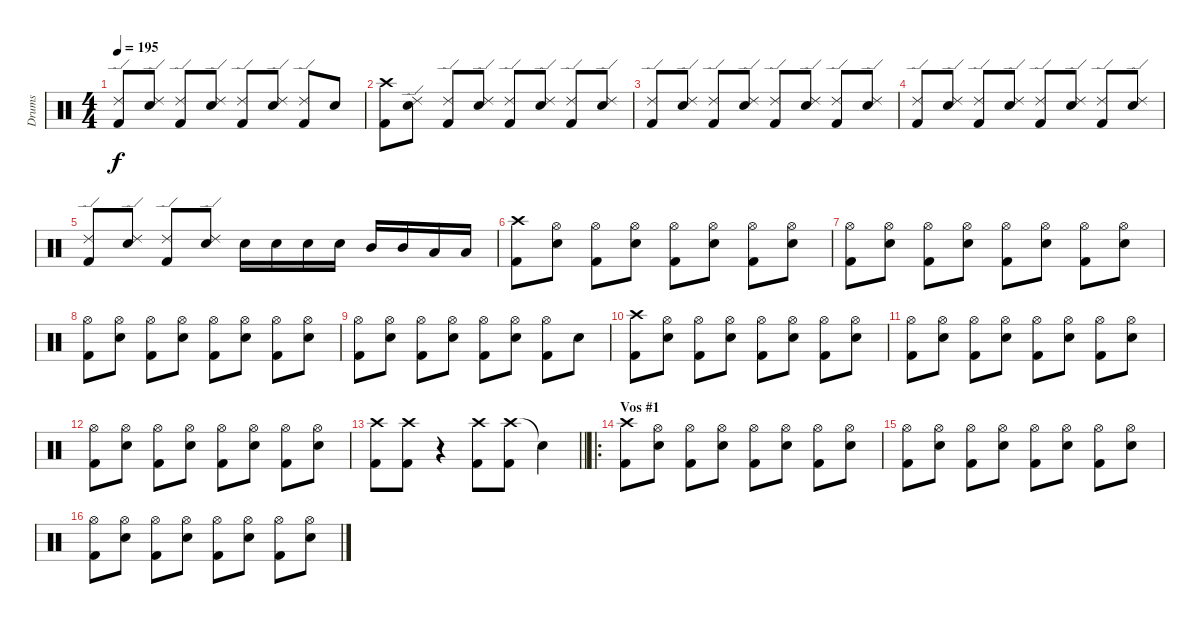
\track ("Drums" "Drums") {instrument percussion}
\staff {score}
\articulation defaults
\ts (4 4)
\tempo 195
\clef neutral
\ks c
("Ride (edge) 2" "Kick (hit) 2").8{dy f} ("Ride (edge) 2" "Snare (hit) 2").8 ("Ride (edge) 2" "Kick (hit) 2").8 ("Ride (edge) 2" "Snare (hit) 2").8 ("Ride (edge) 2" "Kick (hit) 2").8 ("Ride (edge) 2" "Snare (hit) 2").8 ("Ride (edge) 2" "Kick (hit) 2").8 "Snare (hit) 2".8 |
("Crash high (hit)" "Kick (hit) 2").8 ("Ride (edge) 2" "Snare (hit) 2").8 ("Ride (edge) 2" "Kick (hit) 2").8 ("Ride (edge) 2" "Snare (hit) 2").8 ("Ride (edge) 2" "Kick (hit) 2").8 ("Ride (edge) 2" "Snare (hit) 2").8 ("Ride (edge) 2" "Kick (hit) 2").8 ("Ride (edge) 2" "Snare (hit) 2").8 |
("Ride (edge) 2" "Kick (hit) 2").8 ("Ride (edge) 2" "Snare (hit) 2").8 ("Ride (edge) 2" "Kick (hit) 2").8 ("Ride (edge) 2" "Snare (hit) 2").8 ("Ride (edge) 2" "Kick (hit) 2").8 ("Ride (edge) 2" "Snare (hit) 2").8 ("Ride (edge) 2" "Kick (hit) 2").8 ("Ride (edge) 2" "Snare (hit) 2").8 |
("Ride (edge) 2" "Kick (hit) 2").8 ("Ride (edge) 2" "Snare (hit) 2").8 ("Ride (edge) 2" "Kick (hit) 2").8 ("Ride (edge) 2" "Snare (hit) 2").8 ("Ride (edge) 2" "Kick (hit) 2").8 ("Ride (edge) 2" "Snare (hit) 2").8 ("Ride (edge) 2" "Kick (hit) 2").8 ("Ride (edge) 2" "Snare (hit) 2").8 |
("Ride (edge) 2" "Kick (hit) 2").8 ("Ride (edge) 2" "Snare (hit) 2").8 ("Ride (edge) 2" "Kick (hit) 2").8 ("Ride (edge) 2" "Snare (hit) 2").8 "Snare (hit) 2".16 "Snare (hit) 2".16 "Snare (hit) 2".16 "Snare (hit) 2".16 "Mid Tom (hit)".16 "Mid Tom (hit)".16 "Low Tom (hit)".16 "Low Tom (hit)".16 |
("Crash high (hit)" "Kick (hit) 2").8 ("Hi-Hat (open)" "Snare (hit) 2").8 ("Hi-Hat (open)" "Kick (hit) 2").8 ("Hi-Hat (open)" "Snare (hit) 2").8 ("Hi-Hat (open)" "Kick (hit) 2").8 ("Hi-Hat (open)" "Snare (hit) 2").8 ("Hi-Hat (open)" "Kick (hit) 2").8 ("Hi-Hat (open)" "Snare (hit) 2").8 |
("Hi-Hat (open)" "Kick (hit) 2").8 ("Hi-Hat (open)" "Snare (hit) 2").8 ("Hi-Hat (open)" "Kick (hit) 2").8 ("Hi-Hat (open)" "Snare (hit) 2").8 ("Hi-Hat (open)" "Kick (hit) 2").8 ("Hi-Hat (open)" "Snare (hit) 2").8 ("Hi-Hat (open)" "Kick (hit) 2").8 ("Hi-Hat (open)" "Snare (hit) 2").8 |
("Hi-Hat (open)" "Kick (hit) 2").8 ("Hi-Hat (open)" "Snare (hit) 2").8 ("Hi-Hat (open)" "Kick (hit) 2").8 ("Hi-Hat (open)" "Snare (hit) 2").8 ("Hi-Hat (open)" "Kick (hit) 2").8 ("Hi-Hat (open)" "Snare (hit) 2").8 ("Hi-Hat (open)" "Kick (hit) 2").8 ("Hi-Hat (open)" "Snare (hit) 2").8 |
("Hi-Hat (open)" "Kick (hit) 2").8 ("Hi-Hat (open)" "Snare (hit) 2").8 ("Hi-Hat (open)" "Kick (hit) 2").8 ("Hi-Hat (open)" "Snare (hit) 2").8 ("Hi-Hat (open)" "Kick (hit) 2").8 ("Hi-Hat (open)" "Snare (hit) 2").8 ("Hi-Hat (open)" "Kick (hit) 2").8 "Snare (hit) 2".8 |
("Crash high (hit)" "Kick (hit) 2").8 ("Hi-Hat (open)" "Snare (hit) 2").8 ("Hi-Hat (open)" "Kick (hit) 2").8 ("Hi-Hat (open)" "Snare (hit) 2").8 ("Hi-Hat (open)" "Kick (hit) 2").8 ("Hi-Hat (open)" "Snare (hit) 2").8 ("Hi-Hat (open)" "Kick (hit) 2").8 ("Hi-Hat (open)" "Snare (hit) 2").8 |
("Hi-Hat (open)" "Kick (hit) 2").8 ("Hi-Hat (open)" "Snare (hit) 2").8 ("Hi-Hat (open)" "Kick (hit) 2").8 ("Hi-Hat (open)" "Snare (hit) 2").8 ("Hi-Hat (open)" "Kick (hit) 2").8 ("Hi-Hat (open)" "Snare (hit) 2").8 ("Hi-Hat (open)" "Kick (hit) 2").8 ("Hi-Hat (open)" "Snare (hit) 2").8 |
("Hi-Hat (open)" "Kick (hit) 2").8 ("Hi-Hat (open)" "Snare (hit) 2").8 ("Hi-Hat (open)" "Kick (hit) 2").8 ("Hi-Hat (open)" "Snare (hit) 2").8 ("Hi-Hat (open)" "Kick (hit) 2").8 ("Hi-Hat (open)" "Snare (hit) 2").8 ("Hi-Hat (open)" "Kick (hit) 2").8 ("Hi-Hat (open)" "Snare (hit) 2").8 |
\barLineRight lightlight
("Crash high (hit)" "Kick (hit) 2").8 ("Crash high (hit)" "Kick (hit) 2").8 r.4 ("Crash high (hit)" "Kick (hit) 2").8 ("Crash high (hit)" "Kick (hit) 2").8 "Snare (hit)"{t}.4 |
\ro
\section ("" "Vos #1")
("Crash high (hit)" "Kick (hit) 2").8 ("Hi-Hat (open)" "Snare (hit) 2").8 ("Hi-Hat (open)" "Kick (hit) 2").8 ("Hi-Hat (open)" "Snare (hit) 2").8 ("Hi-Hat (open)" "Kick (hit) 2").8 ("Hi-Hat (open)" "Snare (hit) 2").8 ("Hi-Hat (open)" "Kick (hit) 2").8 ("Hi-Hat (open)" "Snare (hit) 2").8 |
("Hi-Hat (open)" "Kick (hit) 2").8 ("Hi-Hat (open)" "Snare (hit) 2").8 ("Hi-Hat (open)" "Kick (hit) 2").8 ("Hi-Hat (open)" "Snare (hit) 2").8 ("Hi-Hat (open)" "Kick (hit) 2").8 ("Hi-Hat (open)" "Snare (hit) 2").8 ("Hi-Hat (open)" "Kick (hit) 2").8 ("Hi-Hat (open)" "Snare (hit) 2").8 |
("Hi-Hat (open)" "Kick (hit) 2").8 ("Hi-Hat (open)" "Snare (hit) 2").8 ("Hi-Hat (open)" "Kick (hit) 2").8 ("Hi-Hat (open)" "Snare (hit) 2").8 ("Hi-Hat (open)" "Kick (hit) 2").8 ("Hi-Hat (open)" "Snare (hit) 2").8 ("Hi-Hat (open)" "Kick (hit) 2").8 ("Hi-Hat (open)" "Snare (hit) 2").8
